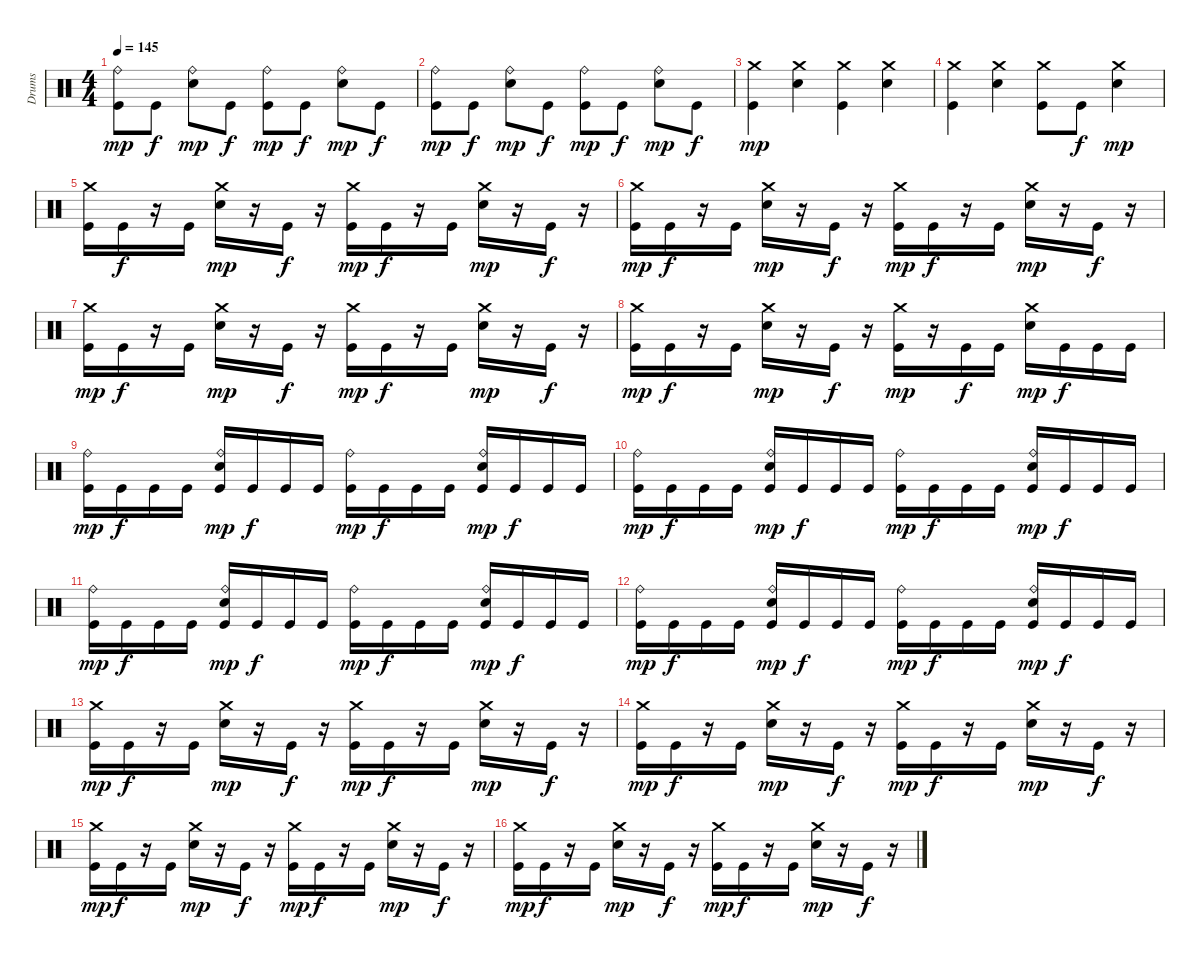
\track ("Drums" "Drums") {instrument percussion}
\staff {score}
\articulation defaults
\ts (4 4)
\tempo 145
\clef neutral
\ks c
("Kick (hit)" "Ride (bell)").8{dy mp} "Kick (hit)".8{dy f} ("Snare (hit) 2" "Ride (bell)").8{dy mp} "Kick (hit)".8{dy f} ("Kick (hit)" "Ride (bell)").8{dy mp} "Kick (hit)".8{dy f} ("Snare (hit) 2" "Ride (bell)").8{dy mp} "Kick (hit)".8{dy f} |
("Kick (hit)" "Ride (bell)").8{dy mp} "Kick (hit)".8{dy f} ("Snare (hit) 2" "Ride (bell)").8{dy mp} "Kick (hit)".8{dy f} ("Kick (hit)" "Ride (bell)").8{dy mp} "Kick (hit)".8{dy f} ("Snare (hit) 2" "Ride (bell)").8{dy mp} "Kick (hit)".8{dy f} |
("Kick (hit)" "Crash medium (hit)").4{dy mp} ("Snare (hit) 2" "Crash medium (hit)").4 ("Kick (hit)" "Crash medium (hit)").4 ("Snare (hit) 2" "Crash medium (hit)").4 |
("Kick (hit)" "Crash medium (hit)").4 ("Snare (hit) 2" "Crash medium (hit)").4 ("Kick (hit)" "Crash medium (hit)").8 "Kick (hit)".8{dy f} ("Snare (hit) 2" "Crash medium (hit)").4{dy mp} |
("Kick (hit)" "Crash medium (hit)").16 "Kick (hit)".16{dy f} r.16 "Kick (hit)".16 ("Snare (hit) 2" "Crash medium (hit)").16{dy mp} r.16 "Kick (hit)".16{dy f} r.16 ("Kick (hit)" "Crash medium (hit)").16{dy mp} "Kick (hit)".16{dy f} r.16 "Kick (hit)".16 ("Snare (hit) 2" "Crash medium (hit)").16{dy mp} r.16 "Kick (hit)".16{dy f} r.16 |
("Kick (hit)" "Crash medium (hit)").16{dy mp} "Kick (hit)".16{dy f} r.16 "Kick (hit)".16 ("Snare (hit) 2" "Crash medium (hit)").16{dy mp} r.16 "Kick (hit)".16{dy f} r.16 ("Kick (hit)" "Crash medium (hit)").16{dy mp} "Kick (hit)".16{dy f} r.16 "Kick (hit)".16 ("Snare (hit) 2" "Crash medium (hit)").16{dy mp} r.16 "Kick (hit)".16{dy f} r.16 |
("Kick (hit)" "Crash medium (hit)").16{dy mp} "Kick (hit)".16{dy f} r.16 "Kick (hit)".16 ("Snare (hit) 2" "Crash medium (hit)").16{dy mp} r.16 "Kick (hit)".16{dy f} r.16 ("Kick (hit)" "Crash medium (hit)").16{dy mp} "Kick (hit)".16{dy f} r.16 "Kick (hit)".16 ("Snare (hit) 2" "Crash medium (hit)").16{dy mp} r.16 "Kick (hit)".16{dy f} r.16 |
("Kick (hit)" "Crash medium (hit)").16{dy mp} "Kick (hit)".16{dy f} r.16 "Kick (hit)".16 ("Snare (hit) 2" "Crash medium (hit)").16{dy mp} r.16 "Kick (hit)".16{dy f} r.16 ("Kick (hit)" "Crash medium (hit)").16{dy mp} r.16 "Kick (hit)".16{dy f} "Kick (hit)".16 ("Snare (hit) 2" "Crash medium (hit)").16{dy mp} "Kick (hit)".16{dy f} "Kick (hit)".16 "Kick (hit)".16 |
("Kick (hit)" "Ride (bell)").16{dy mp} "Kick (hit)".16{dy f} "Kick (hit)".16 "Kick (hit)".16 ("Kick (hit)" "Snare (hit) 2" "Ride (bell)").16{dy mp} "Kick (hit)".16{dy f} "Kick (hit)".16 "Kick (hit)".16 ("Kick (hit)" "Ride (bell)").16{dy mp} "Kick (hit)".16{dy f} "Kick (hit)".16 "Kick (hit)".16 ("Kick (hit)" "Snare (hit) 2" "Ride (bell)").16{dy mp} "Kick (hit)".16{dy f} "Kick (hit)".16 "Kick (hit)".16 |
("Kick (hit)" "Ride (bell)").16{dy mp} "Kick (hit)".16{dy f} "Kick (hit)".16 "Kick (hit)".16 ("Kick (hit)" "Snare (hit) 2" "Ride (bell)").16{dy mp} "Kick (hit)".16{dy f} "Kick (hit)".16 "Kick (hit)".16 ("Kick (hit)" "Ride (bell)").16{dy mp} "Kick (hit)".16{dy f} "Kick (hit)".16 "Kick (hit)".16 ("Kick (hit)" "Snare (hit) 2" "Ride (bell)").16{dy mp} "Kick (hit)".16{dy f} "Kick (hit)".16 "Kick (hit)".16 |
("Kick (hit)" "Ride (bell)").16{dy mp} "Kick (hit)".16{dy f} "Kick (hit)".16 "Kick (hit)".16 ("Kick (hit)" "Snare (hit) 2" "Ride (bell)").16{dy mp} "Kick (hit)".16{dy f} "Kick (hit)".16 "Kick (hit)".16 ("Kick (hit)" "Ride (bell)").16{dy mp} "Kick (hit)".16{dy f} "Kick (hit)".16 "Kick (hit)".16 ("Kick (hit)" "Snare (hit) 2" "Ride (bell)").16{dy mp} "Kick (hit)".16{dy f} "Kick (hit)".16 "Kick (hit)".16 |
("Kick (hit)" "Ride (bell)").16{dy mp} "Kick (hit)".16{dy f} "Kick (hit)".16 "Kick (hit)".16 ("Kick (hit)" "Snare (hit) 2" "Ride (bell)").16{dy mp} "Kick (hit)".16{dy f} "Kick (hit)".16 "Kick (hit)".16 ("Kick (hit)" "Ride (bell)").16{dy mp} "Kick (hit)".16{dy f} "Kick (hit)".16 "Kick (hit)".16 ("Kick (hit)" "Snare (hit) 2" "Ride (bell)").16{dy mp} "Kick (hit)".16{dy f} "Kick (hit)".16 "Kick (hit)".16 |
("Kick (hit)" "Crash medium (hit)").16{dy mp} "Kick (hit)".16{dy f} r.16 "Kick (hit)".16 ("Snare (hit) 2" "Crash medium (hit)").16{dy mp} r.16 "Kick (hit)".16{dy f} r.16 ("Kick (hit)" "Crash medium (hit)").16{dy mp} "Kick (hit)".16{dy f} r.16 "Kick (hit)".16 ("Snare (hit) 2" "Crash medium (hit)").16{dy mp} r.16 "Kick (hit)".16{dy f} r.16 |
("Kick (hit)" "Crash medium (hit)").16{dy mp} "Kick (hit)".16{dy f} r.16 "Kick (hit)".16 ("Snare (hit) 2" "Crash medium (hit)").16{dy mp} r.16 "Kick (hit)".16{dy f} r.16 ("Kick (hit)" "Crash medium (hit)").16{dy mp} "Kick (hit)".16{dy f} r.16 "Kick (hit)".16 ("Snare (hit) 2" "Crash medium (hit)").16{dy mp} r.16 "Kick (hit)".16{dy f} r.16 |
("Kick (hit)" "Crash medium (hit)").16{dy mp} "Kick (hit)".16{dy f} r.16 "Kick (hit)".16 ("Snare (hit) 2" "Crash medium (hit)").16{dy mp} r.16 "Kick (hit)".16{dy f} r.16 ("Kick (hit)" "Crash medium (hit)").16{dy mp} "Kick (hit)".16{dy f} r.16 "Kick (hit)".16 ("Snare (hit) 2" "Crash medium (hit)").16{dy mp} r.16 "Kick (hit)".16{dy f} r.16 |
("Kick (hit)" "Crash medium (hit)").16{dy mp} "Kick (hit)".16{dy f} r.16 "Kick (hit)".16 ("Snare (hit) 2" "Crash medium (hit)").16{dy mp} r.16 "Kick (hit)".16{dy f} r.16 ("Kick (hit)" "Crash medium (hit)").16{dy mp} "Kick (hit)".16{dy f} r.16 "Kick (hit)".16 ("Snare (hit) 2" "Crash medium (hit)").16{dy mp} r.16 "Kick (hit)".16{dy f} r.16
